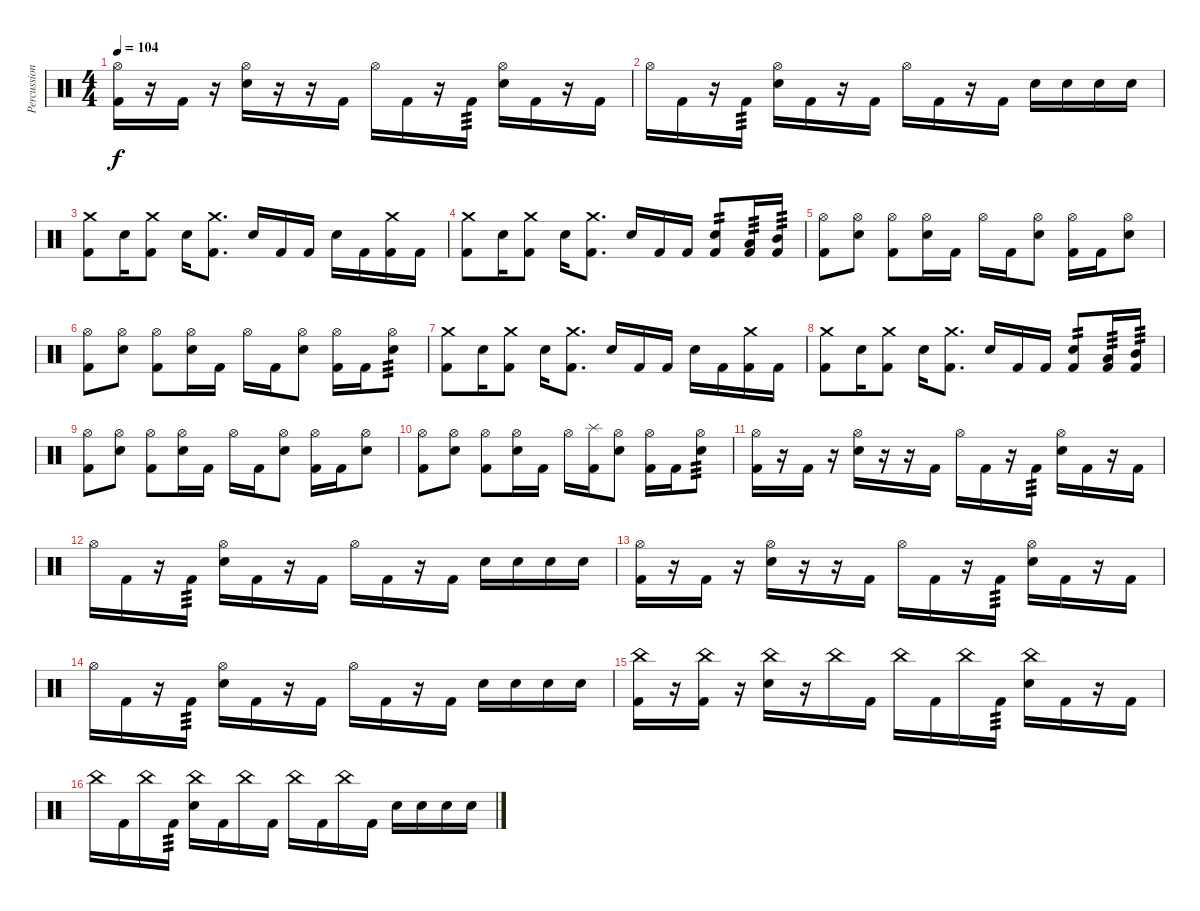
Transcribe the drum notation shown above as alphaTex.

\track ("Percussion" "Percussion") {instrument percussion}
\staff {score}
\articulation defaults
\ts (4 4)
\tempo 104
\clef neutral
\ks c
("Hi-Hat (open)" "Kick (hit) 2").16{dy f} r.16 "Kick (hit) 2".16 r.16 ("Hi-Hat (open)" "Snare (hit) 2").16 r.16 r.16 "Kick (hit) 2".16 "Hi-Hat (open)".16 "Kick (hit) 2".16 r.16 "Kick (hit) 2".16{tp 3} ("Hi-Hat (open)" "Snare (hit) 2").16 "Kick (hit) 2".16 r.16 "Kick (hit) 2".16 |
"Hi-Hat (open)".16 "Kick (hit) 2".16 r.16 "Kick (hit) 2".16{tp 3} ("Hi-Hat (open)" "Snare (hit) 2").16 "Kick (hit) 2".16 r.16 "Kick (hit) 2".16 "Hi-Hat (open)".16 "Kick (hit) 2".16 r.16 "Kick (hit) 2".16 "Snare (hit) 2".16 "Snare (hit) 2".16 "Snare (hit) 2".16 "Snare (hit) 2".16 |
("Crash medium (hit)" "Kick (hit) 2").8 "Snare (hit) 2".16 ("Crash medium (hit)" "Kick (hit) 2").8 "Snare (hit) 2".16 ("Crash medium (hit)" "Kick (hit) 2").8{d} "Snare (hit) 2".16 "Kick (hit) 2".16 "Kick (hit) 2".16 "Snare (hit) 2".16 "Kick (hit) 2".16 ("Crash medium (hit)" "Kick (hit) 2").16 "Kick (hit) 2".16 |
("Crash medium (hit)" "Kick (hit) 2").8 "Snare (hit) 2".16 ("Crash medium (hit)" "Kick (hit) 2").8 "Snare (hit) 2".16 ("Crash medium (hit)" "Kick (hit) 2").8{d} "Snare (hit) 2".16 "Kick (hit) 2".16 "Kick (hit) 2".16 ("Snare (hit) 2" "Kick (hit) 2").8{tp 2} ("Low Tom (hit)" "Kick (hit) 2").16{tp 3} ("Mid Tom (hit)" "Kick (hit) 2").16{tp 3} |
("Hi-Hat (open)" "Kick (hit) 2").8 ("Hi-Hat (open)" "Snare (hit) 2").8 ("Hi-Hat (open)" "Kick (hit) 2").8 ("Hi-Hat (open)" "Snare (hit) 2").16 "Kick (hit) 2".16 "Hi-Hat (open)".16 "Kick (hit) 2".16 ("Hi-Hat (open)" "Snare (hit) 2").8 ("Hi-Hat (open)" "Kick (hit) 2").16 "Kick (hit) 2".16 ("Hi-Hat (open)" "Snare (hit) 2").8 |
("Hi-Hat (open)" "Kick (hit) 2").8 ("Hi-Hat (open)" "Snare (hit) 2").8 ("Hi-Hat (open)" "Kick (hit) 2").8 ("Hi-Hat (open)" "Snare (hit) 2").16 "Kick (hit) 2".16 "Hi-Hat (open)".16 "Kick (hit) 2".16 ("Hi-Hat (open)" "Snare (hit) 2").8 ("Hi-Hat (open)" "Kick (hit) 2").16 "Kick (hit) 2".16 ("Hi-Hat (open)" "Snare (hit) 2").8{tp 3} |
("Crash medium (hit)" "Kick (hit) 2").8 "Snare (hit) 2".16 ("Crash medium (hit)" "Kick (hit) 2").8 "Snare (hit) 2".16 ("Crash medium (hit)" "Kick (hit) 2").8{d} "Snare (hit) 2".16 "Kick (hit) 2".16 "Kick (hit) 2".16 "Snare (hit) 2".16 "Kick (hit) 2".16 ("Crash medium (hit)" "Kick (hit) 2").16 "Kick (hit) 2".16 |
("Crash medium (hit)" "Kick (hit) 2").8 "Snare (hit) 2".16 ("Crash medium (hit)" "Kick (hit) 2").8 "Snare (hit) 2".16 ("Crash medium (hit)" "Kick (hit) 2").8{d} "Snare (hit) 2".16 "Kick (hit) 2".16 "Kick (hit) 2".16 ("Snare (hit) 2" "Kick (hit) 2").8{tp 2} ("Low Tom (hit)" "Kick (hit) 2").16{tp 3} ("Mid Tom (hit)" "Kick (hit) 2").16{tp 3} |
("Hi-Hat (open)" "Kick (hit) 2").8 ("Hi-Hat (open)" "Snare (hit) 2").8 ("Hi-Hat (open)" "Kick (hit) 2").8 ("Hi-Hat (open)" "Snare (hit) 2").16 "Kick (hit) 2".16 "Hi-Hat (open)".16 "Kick (hit) 2".16 ("Hi-Hat (open)" "Snare (hit) 2").8 ("Hi-Hat (open)" "Kick (hit) 2").16 "Kick (hit) 2".16 ("Hi-Hat (open)" "Snare (hit) 2").8 |
("Hi-Hat (open)" "Kick (hit) 2").8 ("Hi-Hat (open)" "Snare (hit) 2").8 ("Hi-Hat (open)" "Kick (hit) 2").8 ("Hi-Hat (open)" "Snare (hit) 2").16 "Kick (hit) 2".16 "Hi-Hat (open)".16 ("Splash (hit)" "Kick (hit) 2").16 ("Hi-Hat (open)" "Snare (hit) 2").8 ("Hi-Hat (open)" "Kick (hit) 2").16 "Kick (hit) 2".16 ("Hi-Hat (open)" "Snare (hit) 2").8{tp 3} |
("Hi-Hat (open)" "Kick (hit) 2").16 r.16 "Kick (hit) 2".16 r.16 ("Hi-Hat (open)" "Snare (hit) 2").16 r.16 r.16 "Kick (hit) 2".16 "Hi-Hat (open)".16 "Kick (hit) 2".16 r.16 "Kick (hit) 2".16{tp 3} ("Hi-Hat (open)" "Snare (hit) 2").16 "Kick (hit) 2".16 r.16 "Kick (hit) 2".16 |
"Hi-Hat (open)".16 "Kick (hit) 2".16 r.16 "Kick (hit) 2".16{tp 3} ("Hi-Hat (open)" "Snare (hit) 2").16 "Kick (hit) 2".16 r.16 "Kick (hit) 2".16 "Hi-Hat (open)".16 "Kick (hit) 2".16 r.16 "Kick (hit) 2".16 "Snare (hit) 2".16 "Snare (hit) 2".16 "Snare (hit) 2".16 "Snare (hit) 2".16 |
("Hi-Hat (open)" "Kick (hit) 2").16 r.16 "Kick (hit) 2".16 r.16 ("Hi-Hat (open)" "Snare (hit) 2").16 r.16 r.16 "Kick (hit) 2".16 "Hi-Hat (open)".16 "Kick (hit) 2".16 r.16 "Kick (hit) 2".16{tp 3} ("Hi-Hat (open)" "Snare (hit) 2").16 "Kick (hit) 2".16 r.16 "Kick (hit) 2".16 |
"Hi-Hat (open)".16 "Kick (hit) 2".16 r.16 "Kick (hit) 2".16{tp 3} ("Hi-Hat (open)" "Snare (hit) 2").16 "Kick (hit) 2".16 r.16 "Kick (hit) 2".16 "Hi-Hat (open)".16 "Kick (hit) 2".16 r.16 "Kick (hit) 2".16 "Snare (hit) 2".16 "Snare (hit) 2".16 "Snare (hit) 2".16 "Snare (hit) 2".16 |
("China (hit)" "Kick (hit) 2").16 r.16 ("China (hit)" "Kick (hit) 2").16 r.16 ("China (hit)" "Snare (hit) 2").16 r.16 "China (hit)".16 "Kick (hit) 2".16 "China (hit)".16 "Kick (hit) 2".16 "China (hit)".16 "Kick (hit) 2".16{tp 3} ("China (hit)" "Snare (hit) 2").16 "Kick (hit) 2".16 r.16 "Kick (hit) 2".16 |
"China (hit)".16 "Kick (hit) 2".16 "China (hit)".16 "Kick (hit) 2".16{tp 3} ("China (hit)" "Snare (hit) 2").16 "Kick (hit) 2".16 "China (hit)".16 "Kick (hit) 2".16 "China (hit)".16 "Kick (hit) 2".16 "China (hit)".16 "Kick (hit) 2".16 "Snare (hit) 2".16 "Snare (hit) 2".16 "Snare (hit) 2".16 "Snare (hit) 2".16
